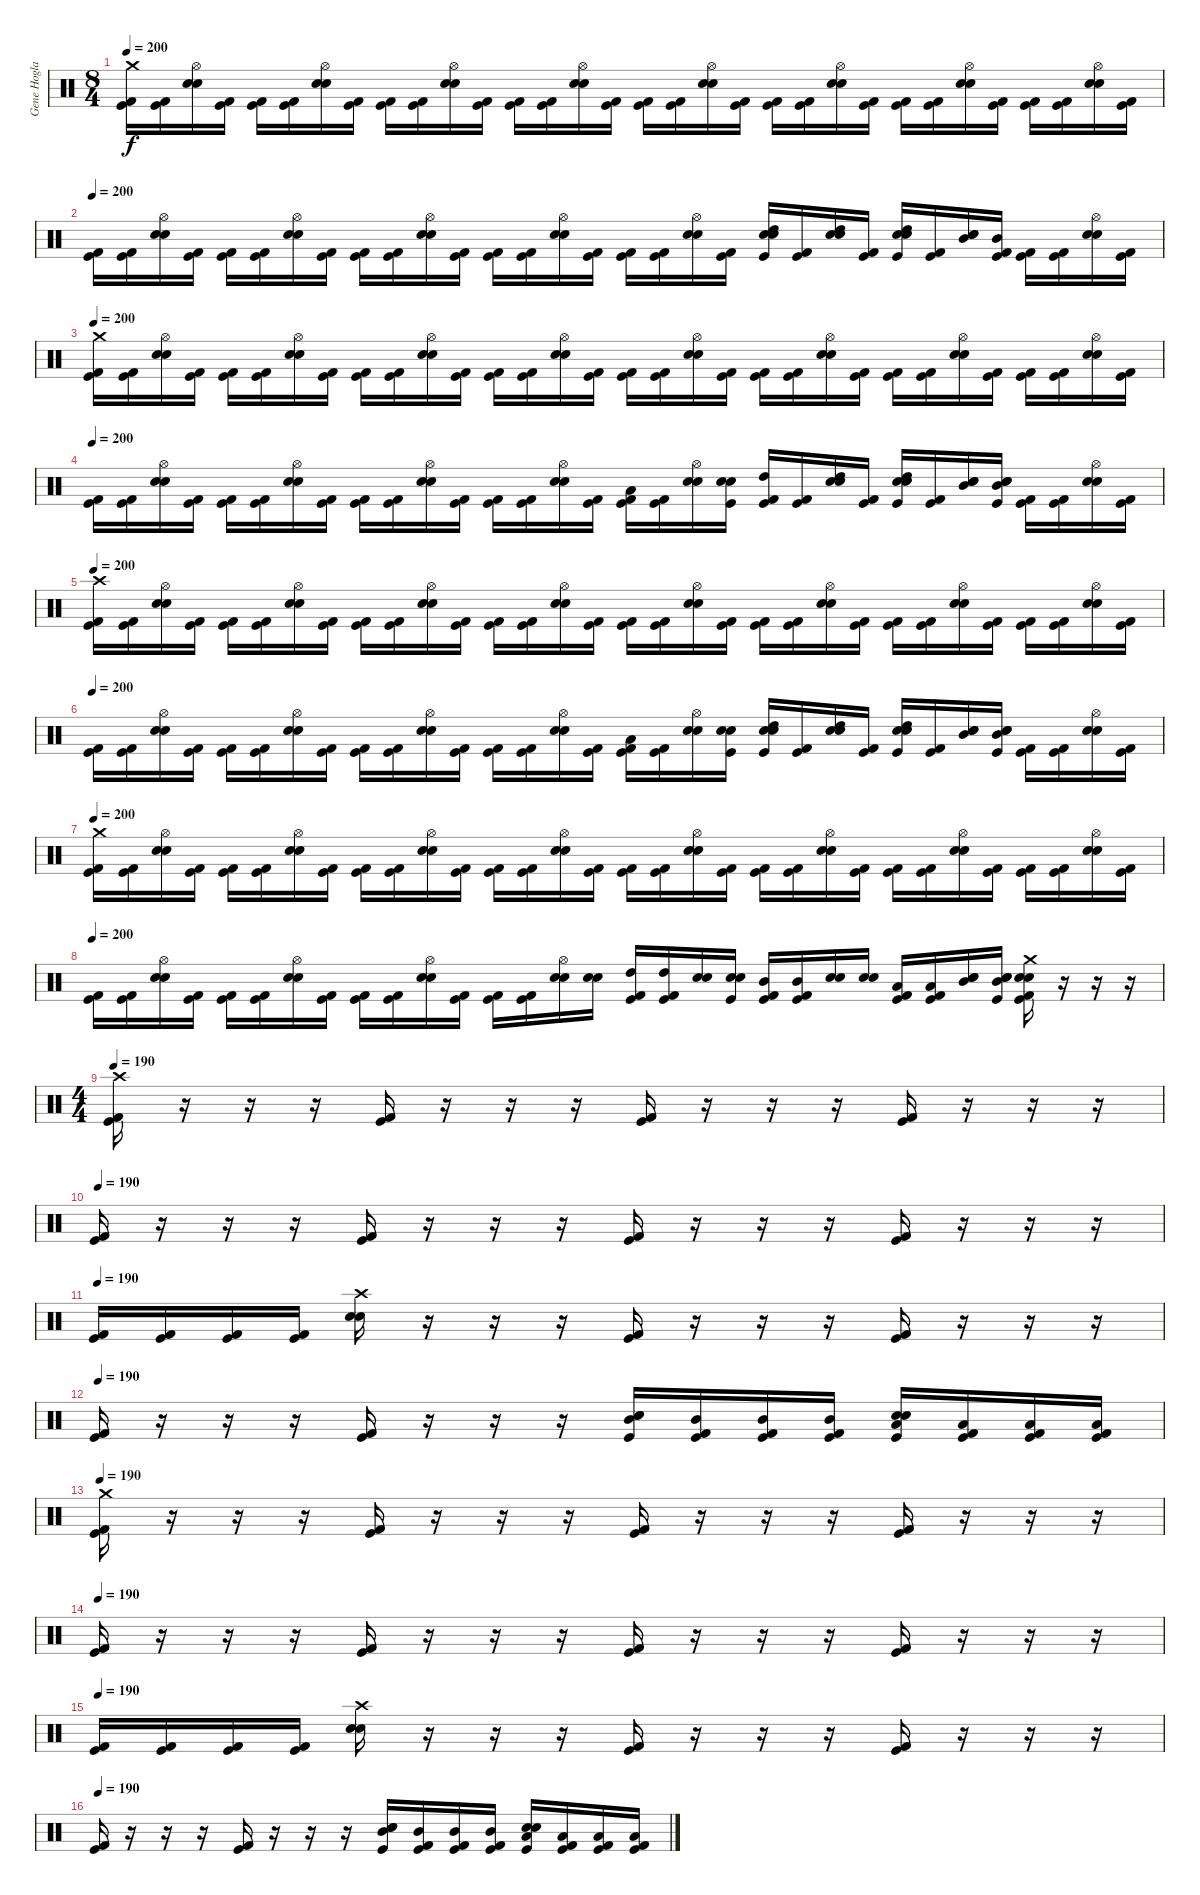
\track ("Gene Hoglan" "Gene Hogla") {instrument percussion}
\staff {score}
\articulation defaults
\ts (8 4)
\tempo 200
\clef neutral
\ks c
("Crash medium (hit)" "Kick (hit) 2" "Kick (hit)").16{dy f} ("Kick (hit) 2" "Kick (hit)").16 ("Hi-Hat (open)" "Snare (hit) 2" "Electric Snare (hit)").16 ("Kick (hit) 2" "Kick (hit)").16 ("Kick (hit) 2" "Kick (hit)").16 ("Kick (hit) 2" "Kick (hit)").16 ("Hi-Hat (open)" "Snare (hit) 2" "Electric Snare (hit)").16 ("Kick (hit) 2" "Kick (hit)").16 ("Kick (hit) 2" "Kick (hit)").16 ("Kick (hit) 2" "Kick (hit)").16 ("Hi-Hat (open)" "Snare (hit) 2" "Electric Snare (hit)").16 ("Kick (hit) 2" "Kick (hit)").16 ("Kick (hit) 2" "Kick (hit)").16 ("Kick (hit) 2" "Kick (hit)").16 ("Hi-Hat (open)" "Snare (hit) 2" "Electric Snare (hit)").16 ("Kick (hit) 2" "Kick (hit)").16 ("Kick (hit) 2" "Kick (hit)").16 ("Kick (hit) 2" "Kick (hit)").16 ("Hi-Hat (open)" "Snare (hit) 2" "Electric Snare (hit)").16 ("Kick (hit) 2" "Kick (hit)").16 ("Kick (hit) 2" "Kick (hit)").16 ("Kick (hit) 2" "Kick (hit)").16 ("Hi-Hat (open)" "Snare (hit) 2" "Electric Snare (hit)").16 ("Kick (hit) 2" "Kick (hit)").16 ("Kick (hit) 2" "Kick (hit)").16 ("Kick (hit) 2" "Kick (hit)").16 ("Hi-Hat (open)" "Snare (hit) 2" "Electric Snare (hit)").16 ("Kick (hit) 2" "Kick (hit)").16 ("Kick (hit) 2" "Kick (hit)").16 ("Kick (hit) 2" "Kick (hit)").16 ("Hi-Hat (open)" "Snare (hit) 2" "Electric Snare (hit)").16 ("Kick (hit) 2" "Kick (hit)").16 |
\tempo 200
("Kick (hit) 2" "Kick (hit)").16 ("Kick (hit) 2" "Kick (hit)").16 ("Hi-Hat (open)" "Snare (hit) 2" "Electric Snare (hit)").16 ("Kick (hit) 2" "Kick (hit)").16 ("Kick (hit) 2" "Kick (hit)").16 ("Kick (hit) 2" "Kick (hit)").16 ("Hi-Hat (open)" "Snare (hit) 2" "Electric Snare (hit)").16 ("Kick (hit) 2" "Kick (hit)").16 ("Kick (hit) 2" "Kick (hit)").16 ("Kick (hit) 2" "Kick (hit)").16 ("Hi-Hat (open)" "Snare (hit) 2" "Electric Snare (hit)").16 ("Kick (hit) 2" "Kick (hit)").16 ("Kick (hit) 2" "Kick (hit)").16 ("Kick (hit) 2" "Kick (hit)").16 ("Hi-Hat (open)" "Snare (hit) 2" "Electric Snare (hit)").16 ("Kick (hit) 2" "Kick (hit)").16 ("Kick (hit) 2" "Kick (hit)").16 ("Kick (hit) 2" "Kick (hit)").16 ("Hi-Hat (open)" "Snare (hit) 2" "Electric Snare (hit)").16 ("Kick (hit) 2" "Kick (hit)").16 ("High Tom (hit)" "Snare (hit) 2" "Electric Snare (hit)" "Kick (hit)").16 ("Kick (hit) 2" "Kick (hit)").16 ("High Tom (hit)" "Snare (hit) 2" "Electric Snare (hit)").16 ("Kick (hit) 2" "Kick (hit)").16 ("High Tom (hit)" "Snare (hit) 2" "Electric Snare (hit)" "Kick (hit)").16 ("Kick (hit) 2" "Kick (hit)").16 ("Mid Tom (hit)" "Snare (hit) 2" "Electric Snare (hit)").16 ("Mid Tom (hit)" "Kick (hit) 2" "Kick (hit)").16 ("Kick (hit) 2" "Kick (hit)").16 ("Kick (hit) 2" "Kick (hit)").16 ("Hi-Hat (open)" "Snare (hit) 2" "Electric Snare (hit)").16 ("Kick (hit) 2" "Kick (hit)").16 |
\tempo 200
("Crash medium (hit)" "Kick (hit) 2" "Kick (hit)").16 ("Kick (hit) 2" "Kick (hit)").16 ("Hi-Hat (open)" "Snare (hit) 2" "Electric Snare (hit)").16 ("Kick (hit) 2" "Kick (hit)").16 ("Kick (hit) 2" "Kick (hit)").16 ("Kick (hit) 2" "Kick (hit)").16 ("Hi-Hat (open)" "Snare (hit) 2" "Electric Snare (hit)").16 ("Kick (hit) 2" "Kick (hit)").16 ("Kick (hit) 2" "Kick (hit)").16 ("Kick (hit) 2" "Kick (hit)").16 ("Hi-Hat (open)" "Snare (hit) 2" "Electric Snare (hit)").16 ("Kick (hit) 2" "Kick (hit)").16 ("Kick (hit) 2" "Kick (hit)").16 ("Kick (hit) 2" "Kick (hit)").16 ("Hi-Hat (open)" "Snare (hit) 2" "Electric Snare (hit)").16 ("Kick (hit) 2" "Kick (hit)").16 ("Kick (hit) 2" "Kick (hit)").16 ("Kick (hit) 2" "Kick (hit)").16 ("Hi-Hat (open)" "Snare (hit) 2" "Electric Snare (hit)").16 ("Kick (hit) 2" "Kick (hit)").16 ("Kick (hit) 2" "Kick (hit)").16 ("Kick (hit) 2" "Kick (hit)").16 ("Hi-Hat (open)" "Snare (hit) 2" "Electric Snare (hit)").16 ("Kick (hit) 2" "Kick (hit)").16 ("Kick (hit) 2" "Kick (hit)").16 ("Kick (hit) 2" "Kick (hit)").16 ("Hi-Hat (open)" "Snare (hit) 2" "Electric Snare (hit)").16 ("Kick (hit) 2" "Kick (hit)").16 ("Kick (hit) 2" "Kick (hit)").16 ("Kick (hit) 2" "Kick (hit)").16 ("Hi-Hat (open)" "Snare (hit) 2" "Electric Snare (hit)").16 ("Kick (hit) 2" "Kick (hit)").16 |
\tempo 200
("Kick (hit) 2" "Kick (hit)").16 ("Kick (hit) 2" "Kick (hit)").16 ("Hi-Hat (open)" "Snare (hit) 2" "Electric Snare (hit)").16 ("Kick (hit) 2" "Kick (hit)").16 ("Kick (hit) 2" "Kick (hit)").16 ("Kick (hit) 2" "Kick (hit)").16 ("Hi-Hat (open)" "Snare (hit) 2" "Electric Snare (hit)").16 ("Kick (hit) 2" "Kick (hit)").16 ("Kick (hit) 2" "Kick (hit)").16 ("Kick (hit) 2" "Kick (hit)").16 ("Hi-Hat (open)" "Snare (hit) 2" "Electric Snare (hit)").16 ("Kick (hit) 2" "Kick (hit)").16 ("Kick (hit) 2" "Kick (hit)").16 ("Kick (hit) 2" "Kick (hit)").16 ("Hi-Hat (open)" "Snare (hit) 2" "Electric Snare (hit)").16 ("Kick (hit) 2" "Kick (hit)").16 ("Low Tom (hit)" "Kick (hit) 2" "Kick (hit)").16 ("Kick (hit) 2" "Kick (hit)").16 ("Hi-Hat (open)" "Snare (hit) 2" "Electric Snare (hit)").16 ("Snare (hit) 2" "Electric Snare (hit)" "Kick (hit)").16 ("High Tom (hit)" "Kick (hit) 2" "Kick (hit)").16 ("Kick (hit) 2" "Kick (hit)").16 ("High Tom (hit)" "Snare (hit) 2" "Electric Snare (hit)").16 ("Kick (hit) 2" "Kick (hit)").16 ("High Tom (hit)" "Snare (hit) 2" "Electric Snare (hit)" "Kick (hit)").16 ("Kick (hit) 2" "Kick (hit)").16 ("Mid Tom (hit)" "Snare (hit) 2" "Electric Snare (hit)").16 ("Mid Tom (hit)" "Snare (hit) 2" "Electric Snare (hit)" "Kick (hit)").16 ("Kick (hit) 2" "Kick (hit)").16 ("Kick (hit) 2" "Kick (hit)").16 ("Hi-Hat (open)" "Snare (hit) 2" "Electric Snare (hit)").16 ("Kick (hit) 2" "Kick (hit)").16 |
\tempo 200
("Crash high (hit)" "Kick (hit) 2" "Kick (hit)").16 ("Kick (hit) 2" "Kick (hit)").16 ("Hi-Hat (open)" "Snare (hit) 2" "Electric Snare (hit)").16 ("Kick (hit) 2" "Kick (hit)").16 ("Kick (hit) 2" "Kick (hit)").16 ("Kick (hit) 2" "Kick (hit)").16 ("Hi-Hat (open)" "Snare (hit) 2" "Electric Snare (hit)").16 ("Kick (hit) 2" "Kick (hit)").16 ("Kick (hit) 2" "Kick (hit)").16 ("Kick (hit) 2" "Kick (hit)").16 ("Hi-Hat (open)" "Snare (hit) 2" "Electric Snare (hit)").16 ("Kick (hit) 2" "Kick (hit)").16 ("Kick (hit) 2" "Kick (hit)").16 ("Kick (hit) 2" "Kick (hit)").16 ("Hi-Hat (open)" "Snare (hit) 2" "Electric Snare (hit)").16 ("Kick (hit) 2" "Kick (hit)").16 ("Kick (hit) 2" "Kick (hit)").16 ("Kick (hit) 2" "Kick (hit)").16 ("Hi-Hat (open)" "Snare (hit) 2" "Electric Snare (hit)").16 ("Kick (hit) 2" "Kick (hit)").16 ("Kick (hit) 2" "Kick (hit)").16 ("Kick (hit) 2" "Kick (hit)").16 ("Hi-Hat (open)" "Snare (hit) 2" "Electric Snare (hit)").16 ("Kick (hit) 2" "Kick (hit)").16 ("Kick (hit) 2" "Kick (hit)").16 ("Kick (hit) 2" "Kick (hit)").16 ("Hi-Hat (open)" "Snare (hit) 2" "Electric Snare (hit)").16 ("Kick (hit) 2" "Kick (hit)").16 ("Kick (hit) 2" "Kick (hit)").16 ("Kick (hit) 2" "Kick (hit)").16 ("Hi-Hat (open)" "Snare (hit) 2" "Electric Snare (hit)").16 ("Kick (hit) 2" "Kick (hit)").16 |
\tempo 200
("Kick (hit) 2" "Kick (hit)").16 ("Kick (hit) 2" "Kick (hit)").16 ("Hi-Hat (open)" "Snare (hit) 2" "Electric Snare (hit)").16 ("Kick (hit) 2" "Kick (hit)").16 ("Kick (hit) 2" "Kick (hit)").16 ("Kick (hit) 2" "Kick (hit)").16 ("Hi-Hat (open)" "Snare (hit) 2" "Electric Snare (hit)").16 ("Kick (hit) 2" "Kick (hit)").16 ("Kick (hit) 2" "Kick (hit)").16 ("Kick (hit) 2" "Kick (hit)").16 ("Hi-Hat (open)" "Snare (hit) 2" "Electric Snare (hit)").16 ("Kick (hit) 2" "Kick (hit)").16 ("Kick (hit) 2" "Kick (hit)").16 ("Kick (hit) 2" "Kick (hit)").16 ("Hi-Hat (open)" "Snare (hit) 2" "Electric Snare (hit)").16 ("Kick (hit) 2" "Kick (hit)").16 ("Low Tom (hit)" "Kick (hit) 2" "Kick (hit)").16 ("Kick (hit) 2" "Kick (hit)").16 ("Hi-Hat (open)" "Snare (hit) 2" "Electric Snare (hit)").16 ("Snare (hit) 2" "Electric Snare (hit)" "Kick (hit)").16 ("High Tom (hit)" "Snare (hit) 2" "Electric Snare (hit)" "Kick (hit)").16 ("Kick (hit) 2" "Kick (hit)").16 ("High Tom (hit)" "Snare (hit) 2" "Electric Snare (hit)").16 ("Kick (hit) 2" "Kick (hit)").16 ("High Tom (hit)" "Snare (hit) 2" "Electric Snare (hit)" "Kick (hit)").16 ("Kick (hit) 2" "Kick (hit)").16 ("Mid Tom (hit)" "Snare (hit) 2" "Electric Snare (hit)").16 ("Mid Tom (hit)" "Snare (hit) 2" "Electric Snare (hit)" "Kick (hit)").16 ("Kick (hit) 2" "Kick (hit)").16 ("Kick (hit) 2" "Kick (hit)").16 ("Hi-Hat (open)" "Snare (hit) 2" "Electric Snare (hit)").16 ("Kick (hit) 2" "Kick (hit)").16 |
\tempo 200
("Crash medium (hit)" "Kick (hit) 2" "Kick (hit)").16 ("Kick (hit) 2" "Kick (hit)").16 ("Hi-Hat (open)" "Snare (hit) 2" "Electric Snare (hit)").16 ("Kick (hit) 2" "Kick (hit)").16 ("Kick (hit) 2" "Kick (hit)").16 ("Kick (hit) 2" "Kick (hit)").16 ("Hi-Hat (open)" "Snare (hit) 2" "Electric Snare (hit)").16 ("Kick (hit) 2" "Kick (hit)").16 ("Kick (hit) 2" "Kick (hit)").16 ("Kick (hit) 2" "Kick (hit)").16 ("Hi-Hat (open)" "Snare (hit) 2" "Electric Snare (hit)").16 ("Kick (hit) 2" "Kick (hit)").16 ("Kick (hit) 2" "Kick (hit)").16 ("Kick (hit) 2" "Kick (hit)").16 ("Hi-Hat (open)" "Snare (hit) 2" "Electric Snare (hit)").16 ("Kick (hit) 2" "Kick (hit)").16 ("Kick (hit) 2" "Kick (hit)").16 ("Kick (hit) 2" "Kick (hit)").16 ("Hi-Hat (open)" "Snare (hit) 2" "Electric Snare (hit)").16 ("Kick (hit) 2" "Kick (hit)").16 ("Kick (hit) 2" "Kick (hit)").16 ("Kick (hit) 2" "Kick (hit)").16 ("Hi-Hat (open)" "Snare (hit) 2" "Electric Snare (hit)").16 ("Kick (hit) 2" "Kick (hit)").16 ("Kick (hit) 2" "Kick (hit)").16 ("Kick (hit) 2" "Kick (hit)").16 ("Hi-Hat (open)" "Snare (hit) 2" "Electric Snare (hit)").16 ("Kick (hit) 2" "Kick (hit)").16 ("Kick (hit) 2" "Kick (hit)").16 ("Kick (hit) 2" "Kick (hit)").16 ("Hi-Hat (open)" "Snare (hit) 2" "Electric Snare (hit)").16 ("Kick (hit) 2" "Kick (hit)").16 |
\tempo 200
("Kick (hit) 2" "Kick (hit)").16 ("Kick (hit) 2" "Kick (hit)").16 ("Hi-Hat (open)" "Snare (hit) 2" "Electric Snare (hit)").16 ("Kick (hit) 2" "Kick (hit)").16 ("Kick (hit) 2" "Kick (hit)").16 ("Kick (hit) 2" "Kick (hit)").16 ("Hi-Hat (open)" "Snare (hit) 2" "Electric Snare (hit)").16 ("Kick (hit) 2" "Kick (hit)").16 ("Kick (hit) 2" "Kick (hit)").16 ("Kick (hit) 2" "Kick (hit)").16 ("Hi-Hat (open)" "Snare (hit) 2" "Electric Snare (hit)").16 ("Kick (hit) 2" "Kick (hit)").16 ("Kick (hit) 2" "Kick (hit)").16 ("Kick (hit) 2" "Kick (hit)").16 ("Hi-Hat (open)" "Snare (hit) 2" "Electric Snare (hit)").16 ("Snare (hit) 2" "Electric Snare (hit)").16 ("High Tom (hit)" "Kick (hit) 2" "Kick (hit)").16 ("High Tom (hit)" "Kick (hit) 2" "Kick (hit)").16 ("Snare (hit) 2" "Electric Snare (hit)").16 ("Snare (hit) 2" "Electric Snare (hit)" "Kick (hit)").16 ("Mid Tom (hit)" "Kick (hit) 2" "Kick (hit)").16 ("Mid Tom (hit)" "Kick (hit) 2" "Kick (hit)").16 ("Snare (hit) 2" "Electric Snare (hit)").16 ("Snare (hit) 2" "Electric Snare (hit)").16 ("Low Tom (hit)" "Kick (hit) 2" "Kick (hit)").16 ("Low Tom (hit)" "Kick (hit) 2" "Kick (hit)").16 ("Mid Tom (hit)" "Snare (hit) 2" "Electric Snare (hit)").16 ("Mid Tom (hit)" "Snare (hit) 2" "Electric Snare (hit)" "Kick (hit)").16 ("Crash medium (hit)" "Snare (hit) 2" "Electric Snare (hit)" "Kick (hit) 2" "Kick (hit)").16 r.16 r.16 r.16 |
\ts (4 4)
\tempo 190
("Crash high (hit)" "Kick (hit)" "Kick (hit) 2").16 r.16 r.16 r.16 ("Kick (hit)" "Kick (hit) 2").16 r.16 r.16 r.16 ("Kick (hit)" "Kick (hit) 2").16 r.16 r.16 r.16 ("Kick (hit)" "Kick (hit) 2").16 r.16 r.16 r.16 |
\tempo 190
("Kick (hit)" "Kick (hit) 2").16 r.16 r.16 r.16 ("Kick (hit)" "Kick (hit) 2").16 r.16 r.16 r.16 ("Kick (hit)" "Kick (hit) 2").16 r.16 r.16 r.16 ("Kick (hit)" "Kick (hit) 2").16 r.16 r.16 r.16 |
\tempo 190
("Kick (hit) 2" "Kick (hit)").16 ("Kick (hit) 2" "Kick (hit)").16 ("Kick (hit) 2" "Kick (hit)").16 ("Kick (hit) 2" "Kick (hit)").16 ("Crash high (hit)" "Snare (hit) 2" "Electric Snare (hit)").16 r.16 r.16 r.16 ("Kick (hit) 2" "Kick (hit)").16 r.16 r.16 r.16 ("Kick (hit) 2" "Kick (hit)").16 r.16 r.16 r.16 |
\tempo 190
("Kick (hit)" "Kick (hit) 2").16 r.16 r.16 r.16 ("Kick (hit)" "Kick (hit) 2").16 r.16 r.16 r.16 ("Mid Tom (hit)" "Snare (hit) 2" "Electric Snare (hit)" "Kick (hit)").16 ("Mid Tom (hit)" "Kick (hit) 2" "Kick (hit)").16 ("Mid Tom (hit)" "Kick (hit) 2" "Kick (hit)").16 ("Mid Tom (hit)" "Kick (hit) 2" "Kick (hit)").16 ("Low Tom (hit)" "Snare (hit) 2" "Electric Snare (hit)" "Kick (hit)").16 ("Low Tom (hit)" "Kick (hit) 2" "Kick (hit)").16 ("Low Tom (hit)" "Kick (hit) 2" "Kick (hit)").16 ("Low Tom (hit)" "Kick (hit) 2" "Kick (hit)").16 |
\tempo 190
("Crash medium (hit)" "Kick (hit)" "Kick (hit) 2").16 r.16 r.16 r.16 ("Kick (hit)" "Kick (hit) 2").16 r.16 r.16 r.16 ("Kick (hit)" "Kick (hit) 2").16 r.16 r.16 r.16 ("Kick (hit)" "Kick (hit) 2").16 r.16 r.16 r.16 |
\tempo 190
("Kick (hit)" "Kick (hit) 2").16 r.16 r.16 r.16 ("Kick (hit)" "Kick (hit) 2").16 r.16 r.16 r.16 ("Kick (hit)" "Kick (hit) 2").16 r.16 r.16 r.16 ("Kick (hit)" "Kick (hit) 2").16 r.16 r.16 r.16 |
\tempo 190
("Kick (hit) 2" "Kick (hit)").16 ("Kick (hit) 2" "Kick (hit)").16 ("Kick (hit) 2" "Kick (hit)").16 ("Kick (hit) 2" "Kick (hit)").16 ("Crash high (hit)" "Snare (hit) 2" "Electric Snare (hit)").16 r.16 r.16 r.16 ("Kick (hit) 2" "Kick (hit)").16 r.16 r.16 r.16 ("Kick (hit) 2" "Kick (hit)").16 r.16 r.16 r.16 |
\tempo 190
("Kick (hit)" "Kick (hit) 2").16 r.16 r.16 r.16 ("Kick (hit)" "Kick (hit) 2").16 r.16 r.16 r.16 ("Mid Tom (hit)" "Snare (hit) 2" "Electric Snare (hit)" "Kick (hit)").16 ("Mid Tom (hit)" "Kick (hit) 2" "Kick (hit)").16 ("Mid Tom (hit)" "Kick (hit) 2" "Kick (hit)").16 ("Mid Tom (hit)" "Kick (hit) 2" "Kick (hit)").16 ("Low Tom (hit)" "Snare (hit) 2" "Electric Snare (hit)" "Kick (hit)").16 ("Low Tom (hit)" "Kick (hit) 2" "Kick (hit)").16 ("Low Tom (hit)" "Kick (hit) 2" "Kick (hit)").16 ("Low Tom (hit)" "Kick (hit) 2" "Kick (hit)").16
